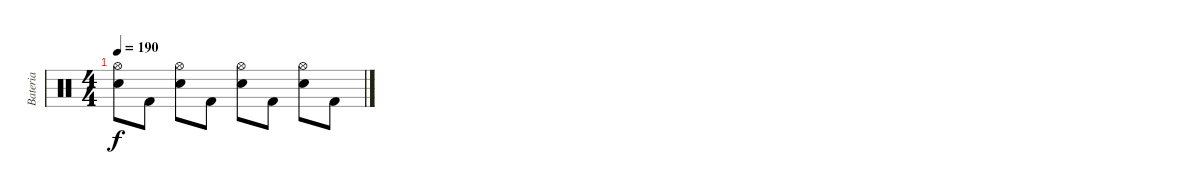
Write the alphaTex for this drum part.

\track ("Bateria" "Bateria") {instrument percussion}
\staff {score}
\articulation defaults
\ts (4 4)
\tempo 190
\clef neutral
\ks c
("Hi-Hat (open)" "Electric Snare (hit)").8{dy f} "Kick (hit) 2".8 ("Hi-Hat (open)" "Electric Snare (hit)").8 "Kick (hit) 2".8 ("Hi-Hat (open)" "Electric Snare (hit)").8 "Kick (hit) 2".8 ("Hi-Hat (open)" "Electric Snare (hit)").8 "Kick (hit) 2".8
